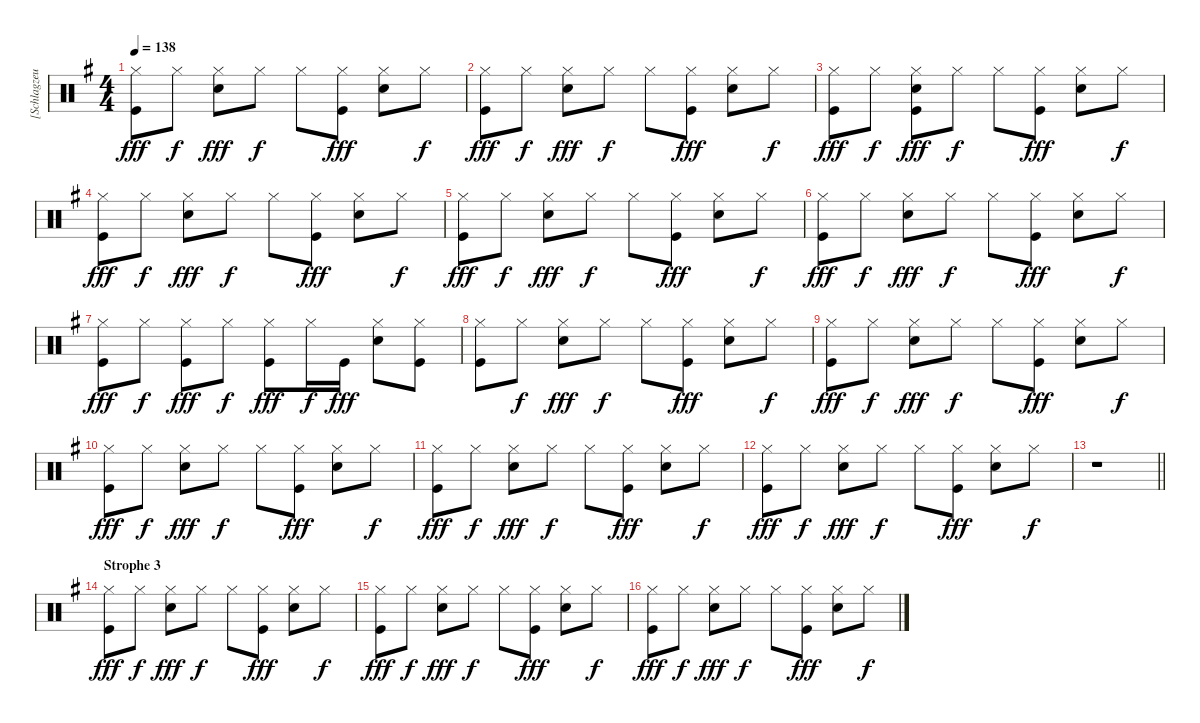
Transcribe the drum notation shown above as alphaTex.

\track ("[Schlagzeug]" "[Schlagzeu") {instrument percussion}
\staff {score}
\articulation defaults
\ts (4 4)
\tempo 138
\clef neutral
\ks eminor
("Hi-Hat (closed)" "Kick (hit)").8{dy fff} "Hi-Hat (closed)".8{dy f} ("Hi-Hat (closed)" "Electric Snare (hit)").8{dy fff} "Hi-Hat (closed)".8{dy f} "Hi-Hat (closed)".8 ("Hi-Hat (closed)" "Kick (hit)").8{dy fff} ("Hi-Hat (closed)" "Electric Snare (hit)").8 "Hi-Hat (closed)".8{dy f} |
("Hi-Hat (closed)" "Kick (hit)").8{dy fff} "Hi-Hat (closed)".8{dy f} ("Hi-Hat (closed)" "Electric Snare (hit)").8{dy fff} "Hi-Hat (closed)".8{dy f} "Hi-Hat (closed)".8 ("Hi-Hat (closed)" "Kick (hit)").8{dy fff} ("Hi-Hat (closed)" "Electric Snare (hit)").8 "Hi-Hat (closed)".8{dy f} |
("Hi-Hat (closed)" "Kick (hit)").8{dy fff} "Hi-Hat (closed)".8{dy f} ("Hi-Hat (closed)" "Electric Snare (hit)" "Kick (hit)").8{dy fff} "Hi-Hat (closed)".8{dy f} "Hi-Hat (closed)".8 ("Hi-Hat (closed)" "Kick (hit)").8{dy fff} ("Hi-Hat (closed)" "Electric Snare (hit)").8 "Hi-Hat (closed)".8{dy f} |
("Hi-Hat (closed)" "Kick (hit)").8{dy fff} "Hi-Hat (closed)".8{dy f} ("Hi-Hat (closed)" "Electric Snare (hit)").8{dy fff} "Hi-Hat (closed)".8{dy f} "Hi-Hat (closed)".8 ("Hi-Hat (closed)" "Kick (hit)").8{dy fff} ("Hi-Hat (closed)" "Electric Snare (hit)").8 "Hi-Hat (closed)".8{dy f} |
("Hi-Hat (closed)" "Kick (hit)").8{dy fff} "Hi-Hat (closed)".8{dy f} ("Hi-Hat (closed)" "Electric Snare (hit)").8{dy fff} "Hi-Hat (closed)".8{dy f} "Hi-Hat (closed)".8 ("Hi-Hat (closed)" "Kick (hit)").8{dy fff} ("Hi-Hat (closed)" "Electric Snare (hit)").8 "Hi-Hat (closed)".8{dy f} |
("Hi-Hat (closed)" "Kick (hit)").8{dy fff} "Hi-Hat (closed)".8{dy f} ("Hi-Hat (closed)" "Electric Snare (hit)").8{dy fff} "Hi-Hat (closed)".8{dy f} "Hi-Hat (closed)".8 ("Hi-Hat (closed)" "Kick (hit)").8{dy fff} ("Hi-Hat (closed)" "Electric Snare (hit)").8 "Hi-Hat (closed)".8{dy f} |
("Hi-Hat (closed)" "Kick (hit)").8{dy fff} "Hi-Hat (closed)".8{dy f} ("Hi-Hat (closed)" "Kick (hit)").8{dy fff} "Hi-Hat (closed)".8{dy f} ("Hi-Hat (closed)" "Kick (hit)").8{dy fff} "Hi-Hat (closed)".16{dy f} "Kick (hit)".16{dy fff} ("Hi-Hat (closed)" "Electric Snare (hit)").8 ("Hi-Hat (closed)" "Kick (hit)").8 |
("Hi-Hat (closed)" "Kick (hit)").8 "Hi-Hat (closed)".8{dy f} ("Hi-Hat (closed)" "Electric Snare (hit)").8{dy fff} "Hi-Hat (closed)".8{dy f} "Hi-Hat (closed)".8 ("Hi-Hat (closed)" "Kick (hit)").8{dy fff} ("Hi-Hat (closed)" "Electric Snare (hit)").8 "Hi-Hat (closed)".8{dy f} |
("Hi-Hat (closed)" "Kick (hit)").8{dy fff} "Hi-Hat (closed)".8{dy f} ("Hi-Hat (closed)" "Electric Snare (hit)").8{dy fff} "Hi-Hat (closed)".8{dy f} "Hi-Hat (closed)".8 ("Hi-Hat (closed)" "Kick (hit)").8{dy fff} ("Hi-Hat (closed)" "Electric Snare (hit)").8 "Hi-Hat (closed)".8{dy f} |
("Hi-Hat (closed)" "Kick (hit)").8{dy fff} "Hi-Hat (closed)".8{dy f} ("Hi-Hat (closed)" "Electric Snare (hit)").8{dy fff} "Hi-Hat (closed)".8{dy f} "Hi-Hat (closed)".8 ("Hi-Hat (closed)" "Kick (hit)").8{dy fff} ("Hi-Hat (closed)" "Electric Snare (hit)").8 "Hi-Hat (closed)".8{dy f} |
("Hi-Hat (closed)" "Kick (hit)").8{dy fff} "Hi-Hat (closed)".8{dy f} ("Hi-Hat (closed)" "Electric Snare (hit)").8{dy fff} "Hi-Hat (closed)".8{dy f} "Hi-Hat (closed)".8 ("Hi-Hat (closed)" "Kick (hit)").8{dy fff} ("Hi-Hat (closed)" "Electric Snare (hit)").8 "Hi-Hat (closed)".8{dy f} |
("Hi-Hat (closed)" "Kick (hit)").8{dy fff} "Hi-Hat (closed)".8{dy f} ("Hi-Hat (closed)" "Electric Snare (hit)").8{dy fff} "Hi-Hat (closed)".8{dy f} "Hi-Hat (closed)".8 ("Hi-Hat (closed)" "Kick (hit)").8{dy fff} ("Hi-Hat (closed)" "Electric Snare (hit)").8 "Hi-Hat (closed)".8{dy f} |
\barLineRight lightlight
r.1 |
\section ("" "Strophe 3")
("Hi-Hat (closed)" "Kick (hit)").8{dy fff} "Hi-Hat (closed)".8{dy f} ("Hi-Hat (closed)" "Electric Snare (hit)").8{dy fff} "Hi-Hat (closed)".8{dy f} "Hi-Hat (closed)".8 ("Hi-Hat (closed)" "Kick (hit)").8{dy fff} ("Hi-Hat (closed)" "Electric Snare (hit)").8 "Hi-Hat (closed)".8{dy f} |
("Hi-Hat (closed)" "Kick (hit)").8{dy fff} "Hi-Hat (closed)".8{dy f} ("Hi-Hat (closed)" "Electric Snare (hit)").8{dy fff} "Hi-Hat (closed)".8{dy f} "Hi-Hat (closed)".8 ("Hi-Hat (closed)" "Kick (hit)").8{dy fff} ("Hi-Hat (closed)" "Electric Snare (hit)").8 "Hi-Hat (closed)".8{dy f} |
("Hi-Hat (closed)" "Kick (hit)").8{dy fff} "Hi-Hat (closed)".8{dy f} ("Hi-Hat (closed)" "Electric Snare (hit)").8{dy fff} "Hi-Hat (closed)".8{dy f} "Hi-Hat (closed)".8 ("Hi-Hat (closed)" "Kick (hit)").8{dy fff} ("Hi-Hat (closed)" "Electric Snare (hit)").8 "Hi-Hat (closed)".8{dy f}
